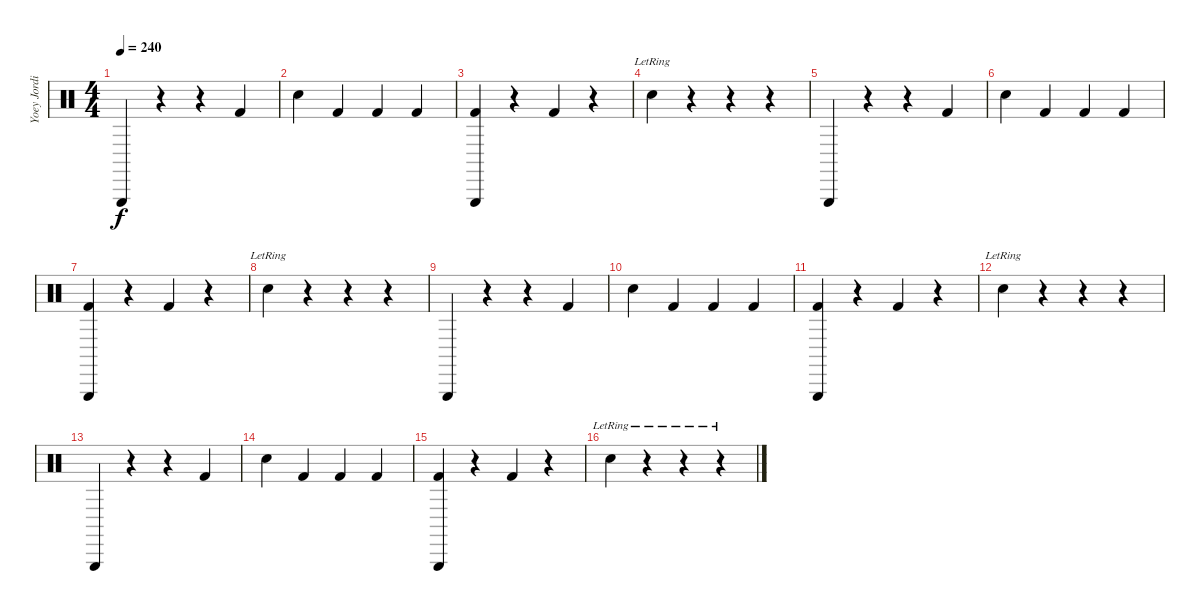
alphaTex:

\track ("Yoey Jordison" "Yoey Jordi") {instrument percussion}
\staff {score}
\articulation defaults
\ts (4 4)
\tempo 240
\clef neutral
\ks c "Triangle (hit)".4{dy f}
r.4 r.4 "Kick (hit) 2".4 |
"Snare (hit) 2".4 "Kick (hit) 2".4 "Kick (hit) 2".4 "Kick (hit) 2".4 |
("Triangle (hit)" "Kick (hit) 2").4 r.4 "Kick (hit) 2".4 r.4 |
"Snare (hit) 2"{lr}.4 r.4 r.4 r.4 |
"Triangle (hit)".4 r.4 r.4 "Kick (hit) 2".4 |
"Snare (hit) 2".4 "Kick (hit) 2".4 "Kick (hit) 2".4 "Kick (hit) 2".4 |
("Triangle (hit)" "Kick (hit) 2").4 r.4 "Kick (hit) 2".4 r.4 |
"Snare (hit) 2"{lr}.4 r.4 r.4 r.4 |
"Triangle (hit)".4 r.4 r.4 "Kick (hit) 2".4 |
"Snare (hit) 2".4 "Kick (hit) 2".4 "Kick (hit) 2".4 "Kick (hit) 2".4 |
("Triangle (hit)" "Kick (hit) 2").4 r.4 "Kick (hit) 2".4 r.4 |
"Snare (hit) 2"{lr}.4 r.4 r.4 r.4 |
"Triangle (hit)".4 r.4 r.4 "Kick (hit) 2".4 |
"Snare (hit) 2".4 "Kick (hit) 2".4 "Kick (hit) 2".4 "Kick (hit) 2".4 |
("Triangle (hit)" "Kick (hit) 2").4 r.4 "Kick (hit) 2".4 r.4 |
"Snare (hit) 2"{lr}.4 r.4 r.4 r.4
